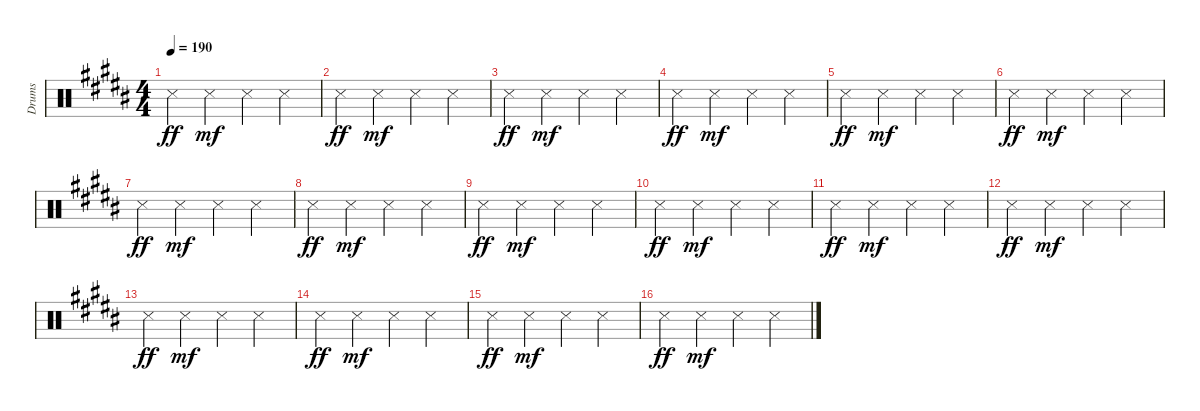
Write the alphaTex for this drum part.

\bracketExtendMode groupsimilarinstruments
\otherSystemsTrackNameOrientation horizontal
\track ("Drumkit" "Drums") {mute instrument percussion}
\staff {score}
\articulation defaults
\ts (4 4)
\tempo 190
\clef neutral
\scale
0.333333
\ks b "Snare (side stick) 3"{acc forcenatural}.4{dy ff} "Snare (side stick) 3"{acc forcenatural}.4{dy mf} "Snare (side stick) 3"{acc forcenatural}.4 "Snare (side stick) 3"{acc forcenatural}.4
|
\scale
0.333333 "Snare (side stick) 3"{acc forcenatural}.4{dy ff} "Snare (side stick) 3"{acc forcenatural}.4{dy mf} "Snare (side stick) 3"{acc forcenatural}.4 "Snare (side stick) 3"{acc forcenatural}.4 |
\scale
0.333333 "Snare (side stick) 3"{acc forcenatural}.4{dy ff} "Snare (side stick) 3"{acc forcenatural}.4{dy mf} "Snare (side stick) 3"{acc forcenatural}.4 "Snare (side stick) 3"{acc forcenatural}.4 |
\scale
0.333333 "Snare (side stick) 3"{acc forcenatural}.4{dy ff} "Snare (side stick) 3"{acc forcenatural}.4{dy mf} "Snare (side stick) 3"{acc forcenatural}.4 "Snare (side stick) 3"{acc forcenatural}.4 |
\scale
0.333333 "Snare (side stick) 3"{acc forcenatural}.4{dy ff} "Snare (side stick) 3"{acc forcenatural}.4{dy mf} "Snare (side stick) 3"{acc forcenatural}.4 "Snare (side stick) 3"{acc forcenatural}.4 |
\scale
0.333333 "Snare (side stick) 3"{acc forcenatural}.4{dy ff} "Snare (side stick) 3"{acc forcenatural}.4{dy mf} "Snare (side stick) 3"{acc forcenatural}.4 "Snare (side stick) 3"{acc forcenatural}.4 |
\scale
0.333333 "Snare (side stick) 3"{acc forcenatural}.4{dy ff} "Snare (side stick) 3"{acc forcenatural}.4{dy mf} "Snare (side stick) 3"{acc forcenatural}.4 "Snare (side stick) 3"{acc forcenatural}.4 |
\scale
0.333333 "Snare (side stick) 3"{acc forcenatural}.4{dy ff} "Snare (side stick) 3"{acc forcenatural}.4{dy mf} "Snare (side stick) 3"{acc forcenatural}.4 "Snare (side stick) 3"{acc forcenatural}.4 |
\scale
0.333333 "Snare (side stick) 3"{acc forcenatural}.4{dy ff} "Snare (side stick) 3"{acc forcenatural}.4{dy mf} "Snare (side stick) 3"{acc forcenatural}.4 "Snare (side stick) 3"{acc forcenatural}.4 |
\scale
0.333333 "Snare (side stick) 3"{acc forcenatural}.4{dy ff} "Snare (side stick) 3"{acc forcenatural}.4{dy mf} "Snare (side stick) 3"{acc forcenatural}.4 "Snare (side stick) 3"{acc forcenatural}.4 |
\scale
0.333333 "Snare (side stick) 3"{acc forcenatural}.4{dy ff} "Snare (side stick) 3"{acc forcenatural}.4{dy mf} "Snare (side stick) 3"{acc forcenatural}.4 "Snare (side stick) 3"{acc forcenatural}.4 |
\scale
0.333333 "Snare (side stick) 3"{acc forcenatural}.4{dy ff} "Snare (side stick) 3"{acc forcenatural}.4{dy mf} "Snare (side stick) 3"{acc forcenatural}.4 "Snare (side stick) 3"{acc forcenatural}.4 |
\scale
0.333333 "Snare (side stick) 3"{acc forcenatural}.4{dy ff} "Snare (side stick) 3"{acc forcenatural}.4{dy mf} "Snare (side stick) 3"{acc forcenatural}.4 "Snare (side stick) 3"{acc forcenatural}.4 |
\scale
0.333333 "Snare (side stick) 3"{acc forcenatural}.4{dy ff} "Snare (side stick) 3"{acc forcenatural}.4{dy mf} "Snare (side stick) 3"{acc forcenatural}.4 "Snare (side stick) 3"{acc forcenatural}.4 |
\scale
0.333333 "Snare (side stick) 3"{acc forcenatural}.4{dy ff} "Snare (side stick) 3"{acc forcenatural}.4{dy mf} "Snare (side stick) 3"{acc forcenatural}.4 "Snare (side stick) 3"{acc forcenatural}.4 |
\scale
0.333333 "Snare (side stick) 3"{acc forcenatural}.4{dy ff} "Snare (side stick) 3"{acc forcenatural}.4{dy mf} "Snare (side stick) 3"{acc forcenatural}.4 "Snare (side stick) 3"{acc forcenatural}.4
